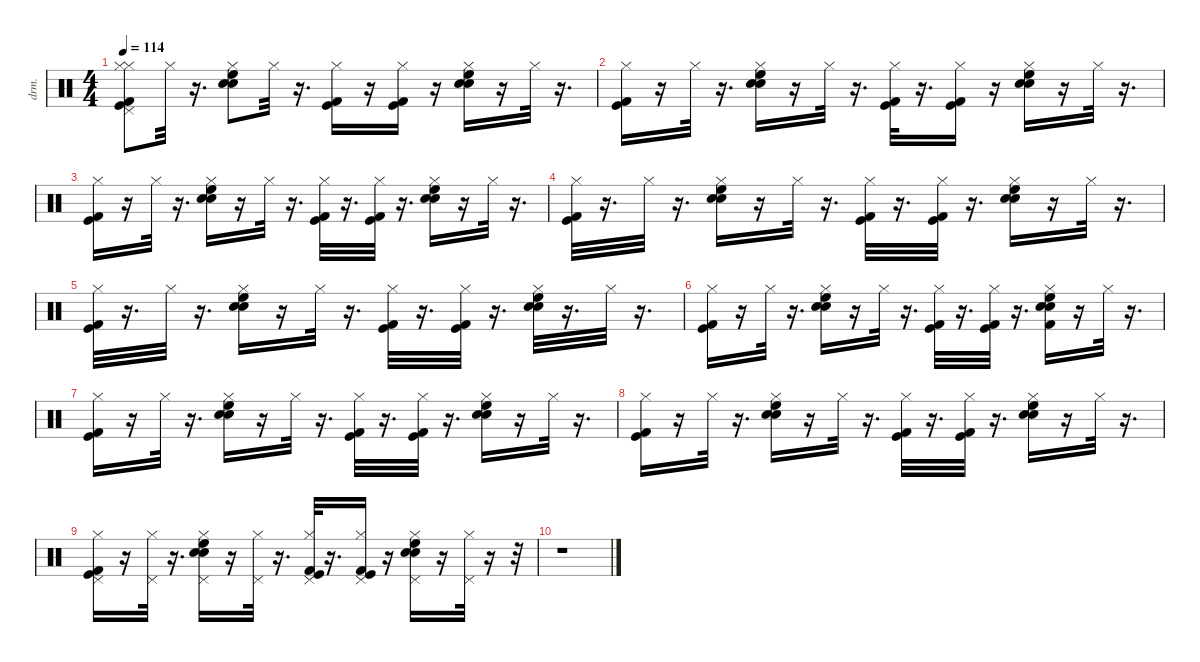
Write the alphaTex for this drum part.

\defaultSystemsLayout 4
\hideDynamics
\bracketExtendMode nobrackets
\otherSystemsTrackNameOrientation horizontal
\track ("Drums" "drm.") {instrument percussion}
\staff {score}
\articulation defaults
\ts (4 4)
\tempo 114
\clef neutral
\ks c
("Kick (hit) 2" "Kick (hit)" "Hi-Hat (closed)" "Pedal Hi-Hat (hit)" "Hi-Hat (closed)").8{dy fff} "Hi-Hat (closed)".32{dy ff} r.16{d} ("Snare (hit) 2" "High Floor Tom (hit)" "Snare (hit) 2" "Hi-Hat (closed)").8{dy fff} "Hi-Hat (closed)".32{dy ff} r.16{d} ("Kick (hit) 2" "Kick (hit)" "Hi-Hat (closed)").16{dy fff} r.16 ("Kick (hit)" "Kick (hit) 2" "Hi-Hat (closed)").16 r.16 ("Snare (hit) 2" "Hi-Hat (closed)" "Snare (hit) 2" "High Floor Tom (hit)").16 r.16 "Hi-Hat (closed)".32{dy ff} r.16{d} |
("Kick (hit)" "Kick (hit) 2" "Hi-Hat (closed)").16{dy fff} r.16 "Hi-Hat (closed)".32{dy ff} r.16{d} ("Snare (hit) 2" "Hi-Hat (closed)" "High Floor Tom (hit)" "Snare (hit) 2").16{dy fff} r.16 "Hi-Hat (closed)".32{dy ff} r.16{d} ("Hi-Hat (closed)" "Kick (hit) 2" "Kick (hit)").32 r.16{d} ("Hi-Hat (closed)" "Kick (hit) 2" "Kick (hit)").16 r.16 ("High Floor Tom (hit)" "Snare (hit) 2" "Snare (hit) 2" "Hi-Hat (closed)").16{dy fff} r.16 "Hi-Hat (closed)".32{dy ff} r.16{d} |
("Kick (hit) 2" "Kick (hit)" "Hi-Hat (closed)").16{dy fff} r.16 "Hi-Hat (closed)".32{dy ff} r.16{d} ("Snare (hit) 2" "High Floor Tom (hit)" "Hi-Hat (closed)" "Snare (hit) 2").16{dy fff} r.16 "Hi-Hat (closed)".32{dy ff} r.16{d} ("Kick (hit) 2" "Hi-Hat (closed)" "Kick (hit)").32{dy fff} r.16{d} ("Kick (hit) 2" "Hi-Hat (closed)" "Kick (hit)").32 r.16{d} ("High Floor Tom (hit)" "Snare (hit) 2" "Snare (hit) 2" "Hi-Hat (closed)").16 r.16 "Hi-Hat (closed)".32{dy ff} r.16{d} |
("Kick (hit)" "Kick (hit) 2" "Hi-Hat (closed)").32{dy fff} r.16{d} "Hi-Hat (closed)".32{dy ff} r.16{d} ("Hi-Hat (closed)" "Snare (hit) 2" "Snare (hit) 2" "High Floor Tom (hit)").16 r.16 "Hi-Hat (closed)".32 r.16{d} ("Hi-Hat (closed)" "Kick (hit) 2" "Kick (hit)").32 r.16{d} ("Hi-Hat (closed)" "Kick (hit)" "Kick (hit) 2").32{dy f} r.16{d} ("High Floor Tom (hit)" "Snare (hit) 2" "Hi-Hat (closed)" "Snare (hit) 2").16{dy fff} r.16 "Hi-Hat (closed)".32{dy ff} r.16{d} |
("Kick (hit)" "Kick (hit) 2" "Hi-Hat (closed)").32{dy fff} r.16{d} "Hi-Hat (closed)".32{dy f} r.16{d} ("Snare (hit) 2" "High Floor Tom (hit)" "Snare (hit) 2" "Hi-Hat (closed)").16{dy fff} r.16 "Hi-Hat (closed)".32{dy ff} r.16{d} ("Kick (hit) 2" "Kick (hit)" "Hi-Hat (closed)").32{dy fff} r.16{d} ("Kick (hit) 2" "Kick (hit)" "Hi-Hat (closed)").32 r.16{d} ("High Floor Tom (hit)" "Snare (hit) 2" "Snare (hit) 2" "Hi-Hat (closed)").32 r.16{d} "Hi-Hat (closed)".32{dy ff} r.16{d} |
("Kick (hit) 2" "Kick (hit)" "Hi-Hat (closed)").16{dy fff} r.16 "Hi-Hat (closed)".32{dy ff} r.16{d} ("Snare (hit) 2" "Hi-Hat (closed)" "Snare (hit) 2" "High Floor Tom (hit)").16{dy fff} r.16 "Hi-Hat (closed)".32{dy ff} r.16{d} ("Kick (hit) 2" "Hi-Hat (closed)" "Kick (hit)").32{dy fff} r.16{d} ("Kick (hit) 2" "Hi-Hat (closed)" "Kick (hit)").32 r.16{d} ("Kick (hit) 2" "Snare (hit) 2" "Snare (hit) 2" "High Floor Tom (hit)" "Hi-Hat (closed)").16{dy f} r.16 "Hi-Hat (closed)".32{dy ff} r.16{d} |
("Kick (hit)" "Kick (hit) 2" "Hi-Hat (closed)").16{dy fff} r.16 "Hi-Hat (closed)".32{dy ff} r.16{d} ("Snare (hit) 2" "High Floor Tom (hit)" "Hi-Hat (closed)" "Snare (hit) 2").16{dy fff} r.16 "Hi-Hat (closed)".32{dy ff} r.16{d} ("Kick (hit) 2" "Kick (hit)" "Hi-Hat (closed)").32{dy fff} r.16{d} ("Kick (hit) 2" "Kick (hit)" "Hi-Hat (closed)").32 r.16{d} ("Snare (hit) 2" "Snare (hit) 2" "High Floor Tom (hit)" "Hi-Hat (closed)").16 r.16 "Hi-Hat (closed)".32{dy ff} r.16{d} |
("Hi-Hat (closed)" "Kick (hit)" "Kick (hit) 2").16 r.16 "Hi-Hat (closed)".32 r.16{d} ("Snare (hit) 2" "Snare (hit) 2" "Hi-Hat (closed)" "High Floor Tom (hit)").16{dy fff} r.16 "Hi-Hat (closed)".32{dy ff} r.16{d} ("Kick (hit) 2" "Hi-Hat (closed)" "Kick (hit)").32{dy fff} r.16{d} ("Kick (hit) 2" "Hi-Hat (closed)" "Kick (hit)").32 r.16{d} ("High Floor Tom (hit)" "Snare (hit) 2" "Snare (hit) 2" "Hi-Hat (closed)").16 r.16 "Hi-Hat (closed)".32{dy ff} r.16{d} |
("Kick (hit)" "Kick (hit) 2" "Pedal Hi-Hat (hit)" "Hi-Hat (closed)").16{dy fff} r.16 ("Pedal Hi-Hat (hit)" "Hi-Hat (closed)").32{dy ff} r.16{d} ("Snare (hit) 2" "Pedal Hi-Hat (hit)" "Hi-Hat (closed)" "High Floor Tom (hit)" "Snare (hit) 2").16{dy fff} r.16 ("Pedal Hi-Hat (hit)" "Hi-Hat (closed)").32{dy ff} r.16{d} ("Kick (hit)" "Kick (hit) 2" "Pedal Hi-Hat (hit)" "Hi-Hat (closed)").32{dy fff} r.16{d} ("Kick (hit) 2" "Kick (hit)" "Pedal Hi-Hat (hit)" "Hi-Hat (closed)").16 r.16 ("Snare (hit) 2" "Snare (hit) 2" "High Floor Tom (hit)" "Pedal Hi-Hat (hit)" "Hi-Hat (closed)").16 r.16 ("Pedal Hi-Hat (hit)" "Hi-Hat (closed)").32{dy ff} r.16 r.32 |
r.1
